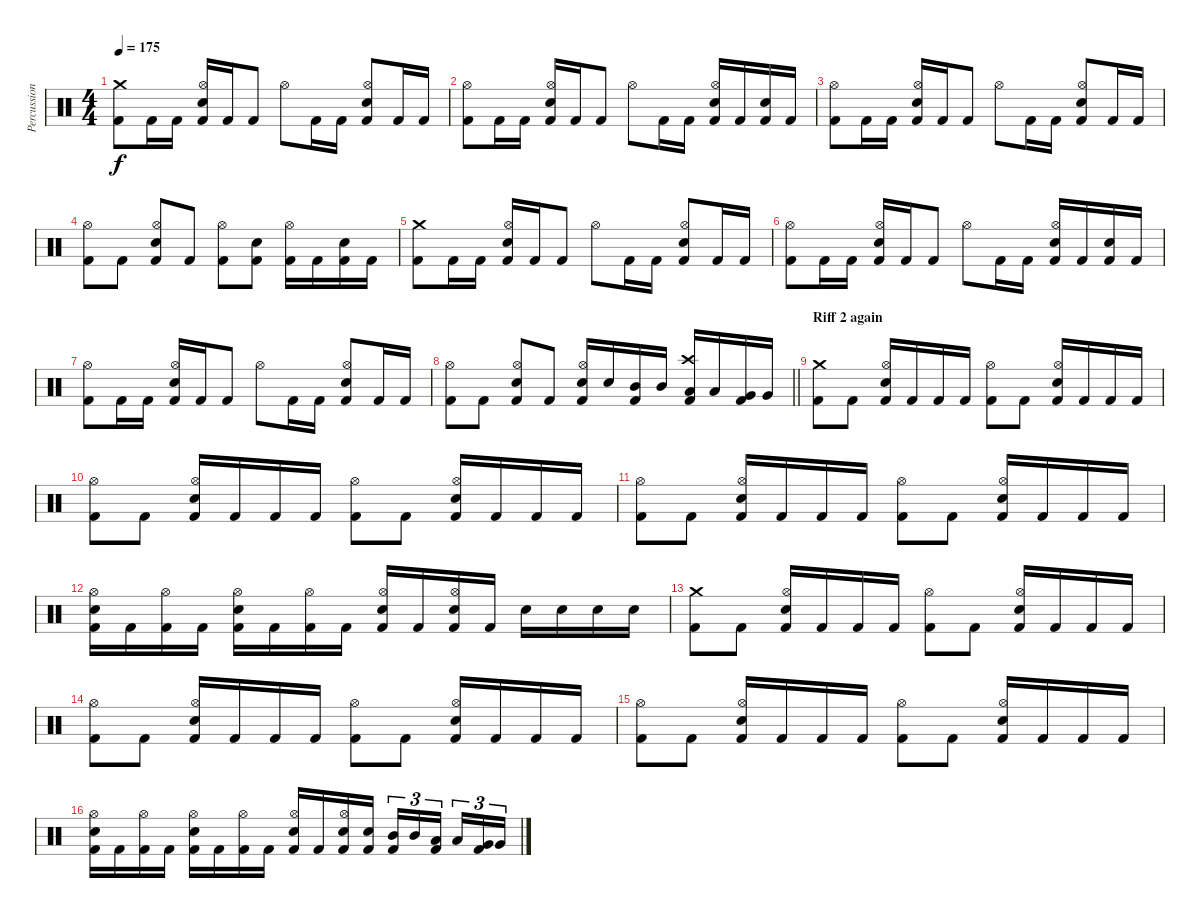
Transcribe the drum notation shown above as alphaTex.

\track ("Percussion" "Percussion") {instrument percussion}
\staff {score}
\articulation defaults
\ts (4 4)
\tempo 175
\clef neutral
\ks c
("Crash medium (hit)" "Kick (hit) 2").8{dy f} "Kick (hit) 2".16 "Kick (hit) 2".16 ("Kick (hit) 2" "Hi-Hat (open)" "Snare (hit) 2").16 "Kick (hit) 2".16 "Kick (hit) 2".8 "Hi-Hat (open)".8 "Kick (hit) 2".16 "Kick (hit) 2".16 ("Kick (hit) 2" "Hi-Hat (open)" "Snare (hit) 2").8 "Kick (hit) 2".16 "Kick (hit) 2".16 |
("Hi-Hat (open)" "Kick (hit) 2").8 "Kick (hit) 2".16 "Kick (hit) 2".16 ("Kick (hit) 2" "Hi-Hat (open)" "Snare (hit) 2").16 "Kick (hit) 2".16 "Kick (hit) 2".8 "Hi-Hat (open)".8 "Kick (hit) 2".16 "Kick (hit) 2".16 ("Kick (hit) 2" "Hi-Hat (open)" "Snare (hit) 2").16 "Kick (hit) 2".16 ("Kick (hit) 2" "Snare (hit) 2").16 "Kick (hit) 2".16 |
("Hi-Hat (open)" "Kick (hit) 2").8 "Kick (hit) 2".16 "Kick (hit) 2".16 ("Kick (hit) 2" "Hi-Hat (open)" "Snare (hit) 2").16 "Kick (hit) 2".16 "Kick (hit) 2".8 "Hi-Hat (open)".8 "Kick (hit) 2".16 "Kick (hit) 2".16 ("Kick (hit) 2" "Hi-Hat (open)" "Snare (hit) 2").8 "Kick (hit) 2".16 "Kick (hit) 2".16 |
("Hi-Hat (open)" "Kick (hit) 2").8 "Kick (hit) 2".8 ("Kick (hit) 2" "Hi-Hat (open)" "Snare (hit) 2").8 "Kick (hit) 2".8 ("Hi-Hat (open)" "Kick (hit) 2").8 ("Kick (hit) 2" "Snare (hit) 2").8 ("Hi-Hat (open)" "Kick (hit) 2").16 "Kick (hit) 2".16 ("Kick (hit) 2" "Snare (hit) 2").16 "Kick (hit) 2".16 |
("Crash medium (hit)" "Kick (hit) 2").8 "Kick (hit) 2".16 "Kick (hit) 2".16 ("Kick (hit) 2" "Hi-Hat (open)" "Snare (hit) 2").16 "Kick (hit) 2".16 "Kick (hit) 2".8 "Hi-Hat (open)".8 "Kick (hit) 2".16 "Kick (hit) 2".16 ("Kick (hit) 2" "Hi-Hat (open)" "Snare (hit) 2").8 "Kick (hit) 2".16 "Kick (hit) 2".16 |
("Hi-Hat (open)" "Kick (hit) 2").8 "Kick (hit) 2".16 "Kick (hit) 2".16 ("Kick (hit) 2" "Hi-Hat (open)" "Snare (hit) 2").16 "Kick (hit) 2".16 "Kick (hit) 2".8 "Hi-Hat (open)".8 "Kick (hit) 2".16 "Kick (hit) 2".16 ("Kick (hit) 2" "Hi-Hat (open)" "Snare (hit) 2").16 "Kick (hit) 2".16 ("Kick (hit) 2" "Snare (hit) 2").16 "Kick (hit) 2".16 |
("Hi-Hat (open)" "Kick (hit) 2").8 "Kick (hit) 2".16 "Kick (hit) 2".16 ("Kick (hit) 2" "Hi-Hat (open)" "Snare (hit) 2").16 "Kick (hit) 2".16 "Kick (hit) 2".8 "Hi-Hat (open)".8 "Kick (hit) 2".16 "Kick (hit) 2".16 ("Kick (hit) 2" "Hi-Hat (open)" "Snare (hit) 2").8 "Kick (hit) 2".16 "Kick (hit) 2".16 |
\barLineRight lightlight
("Hi-Hat (open)" "Kick (hit) 2").8 "Kick (hit) 2".8 ("Kick (hit) 2" "Hi-Hat (open)" "Snare (hit) 2").8 "Kick (hit) 2".8 ("Kick (hit) 2" "Hi-Hat (open)" "Snare (hit) 2").16 "Snare (hit) 2".16 ("Kick (hit) 2" "Mid Tom (hit)").16 "Mid Tom (hit)".16 ("Kick (hit) 2" "Crash high (hit)" "Low Tom (hit)").16 "Low Tom (hit)".16 ("Kick (hit) 2" "Very Low Tom (hit)").16 "Very Low Tom (hit)".16 |
\section ("" "Riff 2 again")
("Crash medium (hit)" "Kick (hit) 2").8 "Kick (hit) 2".8 ("Kick (hit) 2" "Hi-Hat (open)" "Snare (hit) 2").16 "Kick (hit) 2".16 "Kick (hit) 2".16 "Kick (hit) 2".16 ("Hi-Hat (open)" "Kick (hit) 2").8 "Kick (hit) 2".8 ("Kick (hit) 2" "Hi-Hat (open)" "Snare (hit) 2").16 "Kick (hit) 2".16 "Kick (hit) 2".16 "Kick (hit) 2".16 |
("Hi-Hat (open)" "Kick (hit) 2").8 "Kick (hit) 2".8 ("Kick (hit) 2" "Hi-Hat (open)" "Snare (hit) 2").16 "Kick (hit) 2".16 "Kick (hit) 2".16 "Kick (hit) 2".16 ("Hi-Hat (open)" "Kick (hit) 2").8 "Kick (hit) 2".8 ("Kick (hit) 2" "Hi-Hat (open)" "Snare (hit) 2").16 "Kick (hit) 2".16 "Kick (hit) 2".16 "Kick (hit) 2".16 |
("Hi-Hat (open)" "Kick (hit) 2").8 "Kick (hit) 2".8 ("Kick (hit) 2" "Hi-Hat (open)" "Snare (hit) 2").16 "Kick (hit) 2".16 "Kick (hit) 2".16 "Kick (hit) 2".16 ("Hi-Hat (open)" "Kick (hit) 2").8 "Kick (hit) 2".8 ("Kick (hit) 2" "Hi-Hat (open)" "Snare (hit) 2").16 "Kick (hit) 2".16 "Kick (hit) 2".16 "Kick (hit) 2".16 |
("Kick (hit) 2" "Hi-Hat (open)" "Snare (hit) 2").16 "Kick (hit) 2".16 ("Hi-Hat (open)" "Kick (hit) 2").16 "Kick (hit) 2".16 ("Kick (hit) 2" "Hi-Hat (open)" "Snare (hit) 2").16 "Kick (hit) 2".16 ("Hi-Hat (open)" "Kick (hit) 2").16 "Kick (hit) 2".16 ("Kick (hit) 2" "Hi-Hat (open)" "Snare (hit) 2").16 "Kick (hit) 2".16 ("Kick (hit) 2" "Hi-Hat (open)" "Snare (hit) 2").16 "Kick (hit) 2".16 "Snare (hit) 2".16 "Snare (hit) 2".16 "Snare (hit) 2".16 "Snare (hit) 2".16 |
("Crash medium (hit)" "Kick (hit) 2").8 "Kick (hit) 2".8 ("Kick (hit) 2" "Hi-Hat (open)" "Snare (hit) 2").16 "Kick (hit) 2".16 "Kick (hit) 2".16 "Kick (hit) 2".16 ("Hi-Hat (open)" "Kick (hit) 2").8 "Kick (hit) 2".8 ("Kick (hit) 2" "Hi-Hat (open)" "Snare (hit) 2").16 "Kick (hit) 2".16 "Kick (hit) 2".16 "Kick (hit) 2".16 |
("Hi-Hat (open)" "Kick (hit) 2").8 "Kick (hit) 2".8 ("Kick (hit) 2" "Hi-Hat (open)" "Snare (hit) 2").16 "Kick (hit) 2".16 "Kick (hit) 2".16 "Kick (hit) 2".16 ("Hi-Hat (open)" "Kick (hit) 2").8 "Kick (hit) 2".8 ("Kick (hit) 2" "Hi-Hat (open)" "Snare (hit) 2").16 "Kick (hit) 2".16 "Kick (hit) 2".16 "Kick (hit) 2".16 |
("Hi-Hat (open)" "Kick (hit) 2").8 "Kick (hit) 2".8 ("Kick (hit) 2" "Hi-Hat (open)" "Snare (hit) 2").16 "Kick (hit) 2".16 "Kick (hit) 2".16 "Kick (hit) 2".16 ("Hi-Hat (open)" "Kick (hit) 2").8 "Kick (hit) 2".8 ("Kick (hit) 2" "Hi-Hat (open)" "Snare (hit) 2").16 "Kick (hit) 2".16 "Kick (hit) 2".16 "Kick (hit) 2".16 |
("Kick (hit) 2" "Hi-Hat (open)" "Snare (hit) 2").16 "Kick (hit) 2".16 ("Hi-Hat (open)" "Kick (hit) 2").16 "Kick (hit) 2".16 ("Kick (hit) 2" "Hi-Hat (open)" "Snare (hit) 2").16 "Kick (hit) 2".16 ("Hi-Hat (open)" "Kick (hit) 2").16 "Kick (hit) 2".16 ("Kick (hit) 2" "Hi-Hat (open)" "Snare (hit) 2").16 "Kick (hit) 2".16 ("Kick (hit) 2" "Hi-Hat (open)" "Snare (hit) 2").16 ("Kick (hit) 2" "Snare (hit) 2").16 ("Kick (hit) 2" "Mid Tom (hit)").16{tu (3 2)} "Mid Tom (hit)".16{tu (3 2)} ("Kick (hit) 2" "Low Tom (hit)").16{tu (3 2)} "Low Tom (hit)".16{tu (3 2)} ("Kick (hit) 2" "Very Low Tom (hit)").16{tu (3 2)} "Very Low Tom (hit)".16{tu (3 2)}
